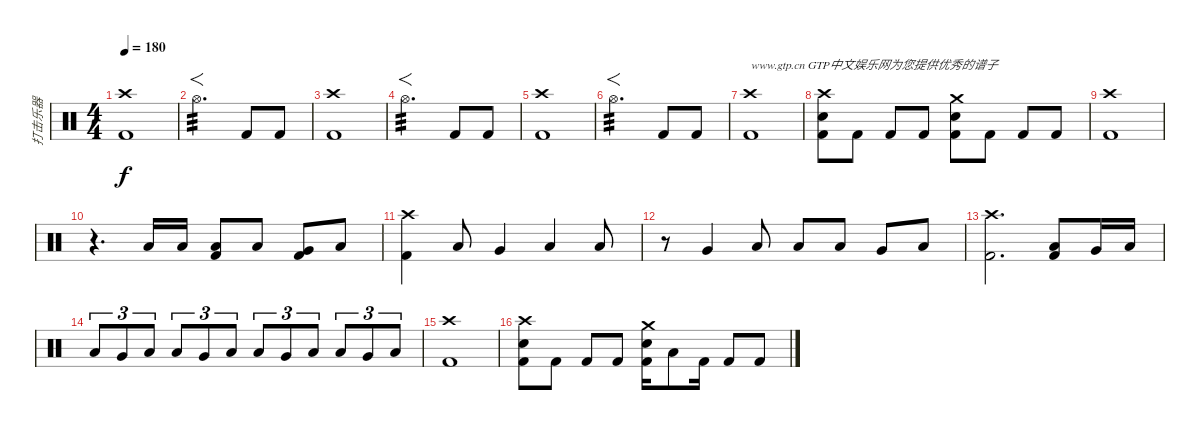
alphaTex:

\track ("打击乐器" "打击乐器") {instrument percussion}
\staff {score}
\articulation defaults
\ts (4 4)
\tempo 180
\clef neutral
\ks c
("Crash high (hit)" "Kick (hit) 2").1{dy f} |
"Hi-Hat (open)".2{f d tp 3} "Kick (hit) 2".8 "Kick (hit) 2".8 |
("Crash high (hit)" "Kick (hit) 2").1 |
"Hi-Hat (open)".2{f d tp 3} "Kick (hit) 2".8 "Kick (hit) 2".8 |
("Crash high (hit)" "Kick (hit) 2").1 |
"Hi-Hat (open)".2{f d tp 3} "Kick (hit) 2".8 "Kick (hit) 2".8 |
("Crash high (hit)" "Kick (hit) 2").1{txt "www.gtp.cn GTP中文娱乐网为您提供优秀的谱子"} |
("Crash high (hit)" "Electric Snare (hit)" "Kick (hit) 2").8 "Kick (hit) 2".8 "Kick (hit) 2".8 "Kick (hit) 2".8 ("Crash medium (hit)" "Electric Snare (hit)" "Kick (hit) 2").8 "Kick (hit) 2".8 "Kick (hit) 2".8 "Kick (hit) 2".8 |
("Crash high (hit)" "Kick (hit) 2").1 |
r.4{d} "Low Floor Tom (hit)".16 "Low Floor Tom (hit)".16 ("Low Tom (hit)" "Kick (hit) 2").8 "Low Tom (hit)".8 ("Very Low Tom (hit)" "Kick (hit) 2").8 "Low Floor Tom (hit)".8 |
("Crash high (hit)" "Kick (hit) 2").4 "Low Tom (hit)".8 "Very Low Tom (hit)".4 "Low Floor Tom (hit)".4 "Low Floor Tom (hit)".8 |
r.8 "Very Low Tom (hit)".4 "Low Floor Tom (hit)".8 "Low Tom (hit)".8 "Low Tom (hit)".8 "Very Low Tom (hit)".8 "Low Floor Tom (hit)".8 |
("Crash high (hit)" "Kick (hit) 2").2{d} ("Low Tom (hit)" "Kick (hit) 2").8 "Very Low Tom (hit)".16 "Low Tom (hit)".16 |
"Low Tom (hit)".8{tu (3 2)} "Very Low Tom (hit)".8{tu (3 2)} "Low Tom (hit)".8{tu (3 2)} "Low Tom (hit)".8{tu (3 2)} "Very Low Tom (hit)".8{tu (3 2)} "Low Tom (hit)".8{tu (3 2)} "Low Tom (hit)".8{tu (3 2)} "Very Low Tom (hit)".8{tu (3 2)} "Low Tom (hit)".8{tu (3 2)} "Low Tom (hit)".8{tu (3 2)} "Very Low Tom (hit)".8{tu (3 2)} "Low Tom (hit)".8{tu (3 2)} |
("Crash high (hit)" "Kick (hit) 2").1 |
("Crash high (hit)" "Electric Snare (hit)" "Kick (hit) 2").8 "Kick (hit) 2".8 "Kick (hit) 2".8 "Kick (hit) 2".8 ("Crash medium (hit)" "Electric Snare (hit)" "Kick (hit) 2").16 "Low Floor Tom (hit)".8 "Kick (hit) 2".16 "Kick (hit) 2".8 "Kick (hit) 2".8
